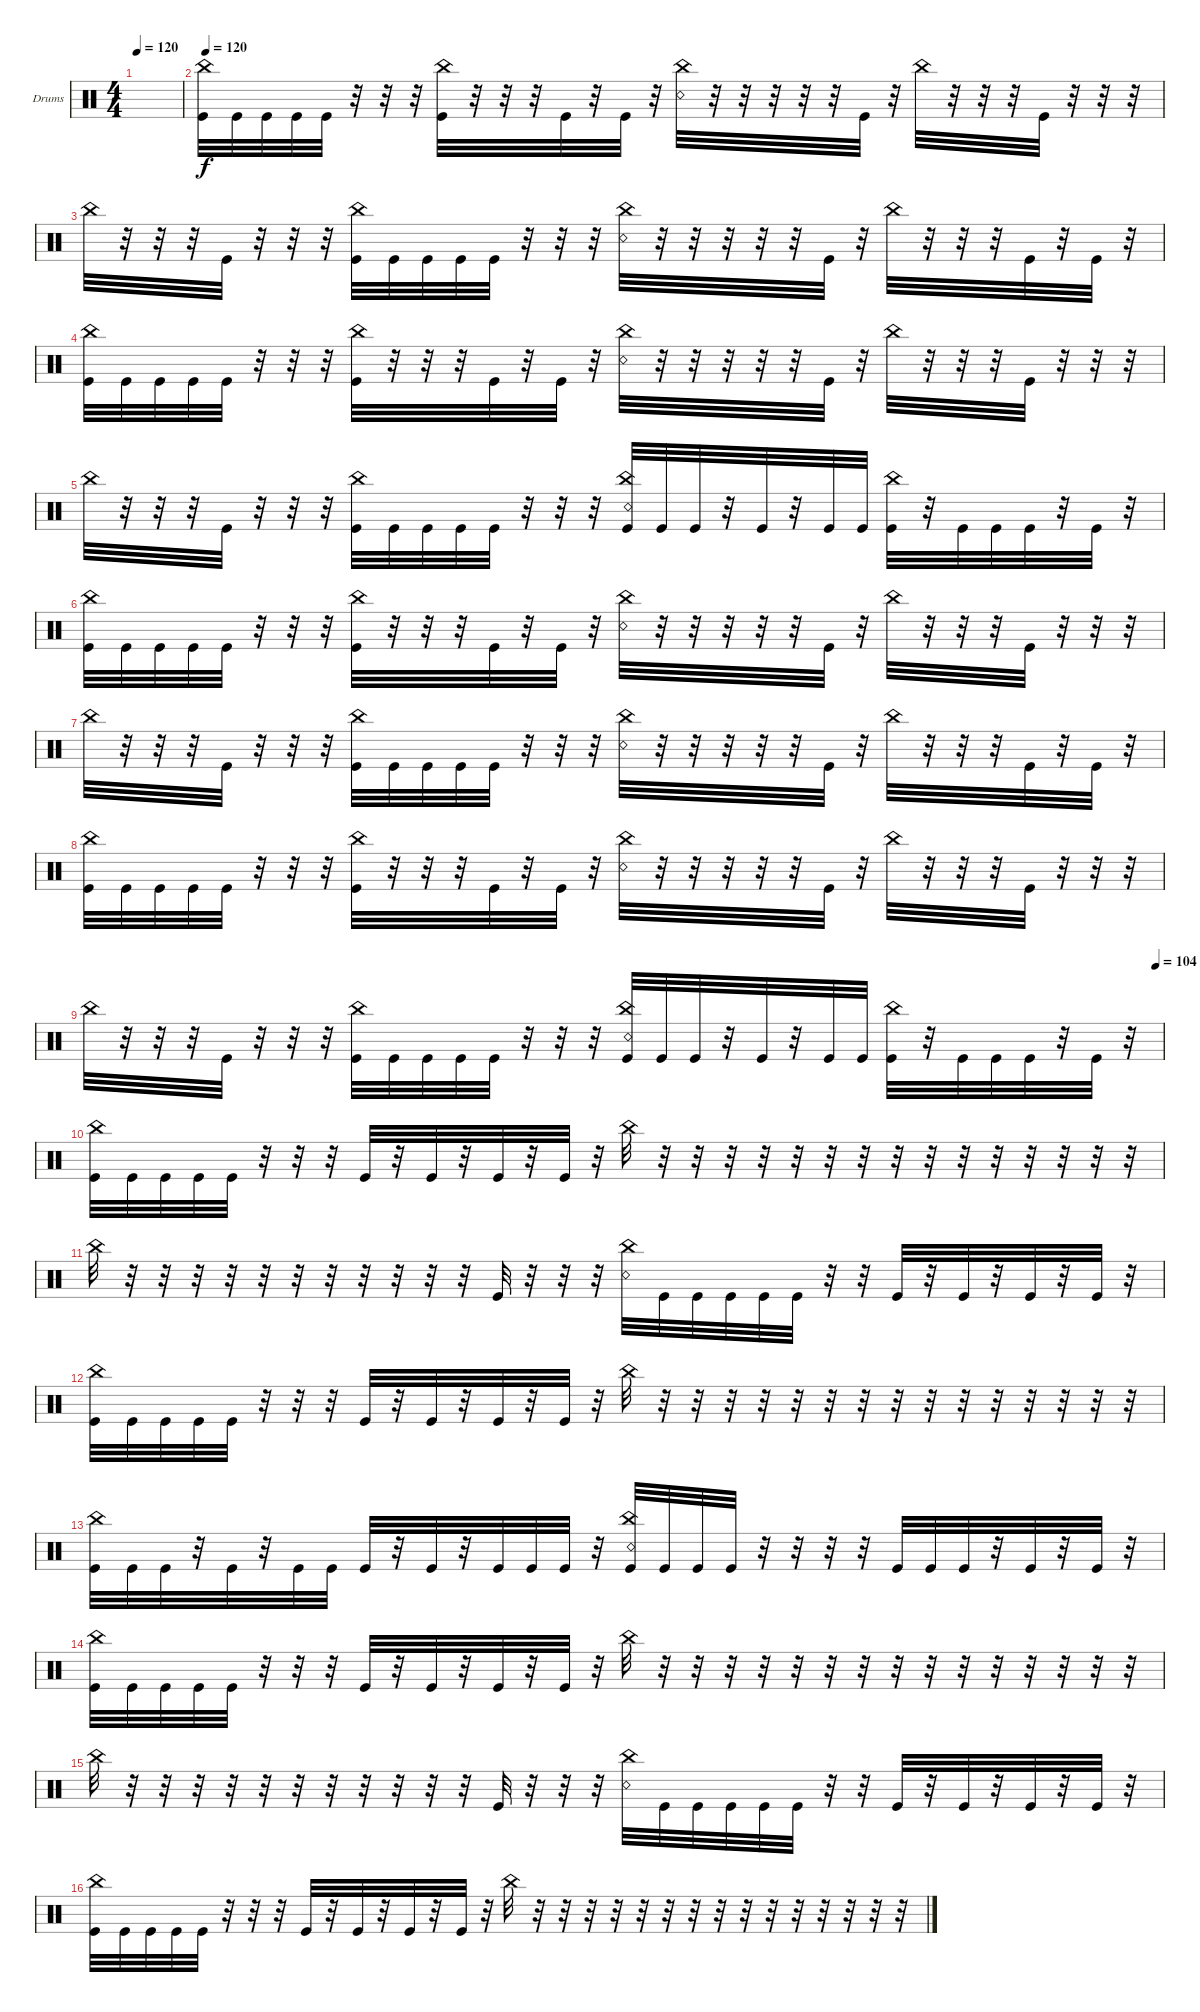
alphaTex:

\defaultSystemsLayout 4
\bracketExtendMode groupsimilarinstruments
\firstSystemTrackNameOrientation horizontal
\otherSystemsTrackNameOrientation horizontal
\track ("Drums" "Drums") {instrument percussion}
\staff {score}
\articulation defaults
\ts (4 4)
\tempo 120
\clef neutral
\ks c
|
\tempo 120
("Kick (hit)" "China (hit)").32 "Kick (hit)".32 "Kick (hit)".32 "Kick (hit)".32 "Kick (hit)".32 r.32 r.32 r.32 ("Kick (hit)" "China (hit)").32 r.32 r.32 r.32 "Kick (hit)".32 r.32 "Kick (hit)".32 r.32 ("Snare (rim shot)" "China (hit)").32 r.32 r.32 r.32 r.32 r.32 "Kick (hit)".32 r.32 "China (hit)".32 r.32 r.32 r.32 "Kick (hit)".32 r.32 r.32 r.32 |
"China (hit)".32 r.32 r.32 r.32 "Kick (hit)".32 r.32 r.32 r.32 ("Kick (hit)" "China (hit)").32 "Kick (hit)".32 "Kick (hit)".32 "Kick (hit)".32 "Kick (hit)".32 r.32 r.32 r.32 ("Snare (rim shot)" "China (hit)").32 r.32 r.32 r.32 r.32 r.32 "Kick (hit)".32 r.32 "China (hit)".32 r.32 r.32 r.32 "Kick (hit)".32 r.32 "Kick (hit)".32 r.32 |
("Kick (hit)" "China (hit)").32 "Kick (hit)".32 "Kick (hit)".32 "Kick (hit)".32 "Kick (hit)".32 r.32 r.32 r.32 ("Kick (hit)" "China (hit)").32 r.32 r.32 r.32 "Kick (hit)".32 r.32 "Kick (hit)".32 r.32 ("Snare (rim shot)" "China (hit)").32 r.32 r.32 r.32 r.32 r.32 "Kick (hit)".32 r.32 "China (hit)".32 r.32 r.32 r.32 "Kick (hit)".32 r.32 r.32 r.32 |
"China (hit)".32 r.32 r.32 r.32 "Kick (hit)".32 r.32 r.32 r.32 ("Kick (hit)" "China (hit)").32 "Kick (hit)".32 "Kick (hit)".32 "Kick (hit)".32 "Kick (hit)".32 r.32 r.32 r.32 ("Snare (rim shot)" "Kick (hit)" "China (hit)").32 "Kick (hit)".32 "Kick (hit)".32 r.32 "Kick (hit)".32 r.32 "Kick (hit)".32 "Kick (hit)".32 ("Kick (hit)" "China (hit)").32 r.32 "Kick (hit)".32 "Kick (hit)".32 "Kick (hit)".32 r.32 "Kick (hit)".32 r.32 |
("Kick (hit)" "China (hit)").32 "Kick (hit)".32 "Kick (hit)".32 "Kick (hit)".32 "Kick (hit)".32 r.32 r.32 r.32 ("Kick (hit)" "China (hit)").32 r.32 r.32 r.32 "Kick (hit)".32 r.32 "Kick (hit)".32 r.32 ("Snare (rim shot)" "China (hit)").32 r.32 r.32 r.32 r.32 r.32 "Kick (hit)".32 r.32 "China (hit)".32 r.32 r.32 r.32 "Kick (hit)".32 r.32 r.32 r.32 |
"China (hit)".32 r.32 r.32 r.32 "Kick (hit)".32 r.32 r.32 r.32 ("Kick (hit)" "China (hit)").32 "Kick (hit)".32 "Kick (hit)".32 "Kick (hit)".32 "Kick (hit)".32 r.32 r.32 r.32 ("Snare (rim shot)" "China (hit)").32 r.32 r.32 r.32 r.32 r.32 "Kick (hit)".32 r.32 "China (hit)".32 r.32 r.32 r.32 "Kick (hit)".32 r.32 "Kick (hit)".32 r.32 |
("Kick (hit)" "China (hit)").32 "Kick (hit)".32 "Kick (hit)".32 "Kick (hit)".32 "Kick (hit)".32 r.32 r.32 r.32 ("Kick (hit)" "China (hit)").32 r.32 r.32 r.32 "Kick (hit)".32 r.32 "Kick (hit)".32 r.32 ("Snare (rim shot)" "China (hit)").32 r.32 r.32 r.32 r.32 r.32 "Kick (hit)".32 r.32 "China (hit)".32 r.32 r.32 r.32 "Kick (hit)".32 r.32 r.32 r.32 |
\tempo (104 0.99375)
"China (hit)".32 r.32 r.32 r.32 "Kick (hit)".32 r.32 r.32 r.32 ("Kick (hit)" "China (hit)").32 "Kick (hit)".32 "Kick (hit)".32 "Kick (hit)".32 "Kick (hit)".32 r.32 r.32 r.32 ("Snare (rim shot)" "Kick (hit)" "China (hit)").32 "Kick (hit)".32 "Kick (hit)".32 r.32 "Kick (hit)".32 r.32 "Kick (hit)".32 "Kick (hit)".32 ("Kick (hit)" "China (hit)").32 r.32 "Kick (hit)".32 "Kick (hit)".32 "Kick (hit)".32 r.32 "Kick (hit)".32 r.32 |
("Kick (hit)" "China (hit)").32 "Kick (hit)".32 "Kick (hit)".32 "Kick (hit)".32 "Kick (hit)".32 r.32 r.32 r.32 "Kick (hit)".32 r.32 "Kick (hit)".32 r.32 "Kick (hit)".32 r.32 "Kick (hit)".32 r.32 "China (hit)".32 r.32 r.32 r.32 r.32 r.32 r.32 r.32 r.32 r.32 r.32 r.32 r.32 r.32 r.32 r.32 |
"China (hit)".32 r.32 r.32 r.32 r.32 r.32 r.32 r.32 r.32 r.32 r.32 r.32 "Kick (hit)".32 r.32 r.32 r.32 ("China (hit)" "Snare (rim shot)").32 "Kick (hit)".32 "Kick (hit)".32 "Kick (hit)".32 "Kick (hit)".32 "Kick (hit)".32 r.32 r.32 "Kick (hit)".32 r.32 "Kick (hit)".32 r.32 "Kick (hit)".32 r.32 "Kick (hit)".32 r.32 |
("Kick (hit)" "China (hit)").32 "Kick (hit)".32 "Kick (hit)".32 "Kick (hit)".32 "Kick (hit)".32 r.32 r.32 r.32 "Kick (hit)".32 r.32 "Kick (hit)".32 r.32 "Kick (hit)".32 r.32 "Kick (hit)".32 r.32 "China (hit)".32 r.32 r.32 r.32 r.32 r.32 r.32 r.32 r.32 r.32 r.32 r.32 r.32 r.32 r.32 r.32 |
("China (hit)" "Kick (hit)").32 "Kick (hit)".32 "Kick (hit)".32 r.32 "Kick (hit)".32 r.32 "Kick (hit)".32 "Kick (hit)".32 "Kick (hit)".32 r.32 "Kick (hit)".32 r.32 "Kick (hit)".32 "Kick (hit)".32 "Kick (hit)".32 r.32 ("China (hit)" "Snare (rim shot)" "Kick (hit)").32 "Kick (hit)".32 "Kick (hit)".32 "Kick (hit)".32 r.32 r.32 r.32 r.32 "Kick (hit)".32 "Kick (hit)".32 "Kick (hit)".32 r.32 "Kick (hit)".32 r.32 "Kick (hit)".32 r.32 |
("Kick (hit)" "China (hit)").32 "Kick (hit)".32 "Kick (hit)".32 "Kick (hit)".32 "Kick (hit)".32 r.32 r.32 r.32 "Kick (hit)".32 r.32 "Kick (hit)".32 r.32 "Kick (hit)".32 r.32 "Kick (hit)".32 r.32 "China (hit)".32 r.32 r.32 r.32 r.32 r.32 r.32 r.32 r.32 r.32 r.32 r.32 r.32 r.32 r.32 r.32 |
"China (hit)".32 r.32 r.32 r.32 r.32 r.32 r.32 r.32 r.32 r.32 r.32 r.32 "Kick (hit)".32 r.32 r.32 r.32 ("China (hit)" "Snare (rim shot)").32 "Kick (hit)".32 "Kick (hit)".32 "Kick (hit)".32 "Kick (hit)".32 "Kick (hit)".32 r.32 r.32 "Kick (hit)".32 r.32 "Kick (hit)".32 r.32 "Kick (hit)".32 r.32 "Kick (hit)".32 r.32 |
("Kick (hit)" "China (hit)").32 "Kick (hit)".32 "Kick (hit)".32 "Kick (hit)".32 "Kick (hit)".32 r.32 r.32 r.32 "Kick (hit)".32 r.32 "Kick (hit)".32 r.32 "Kick (hit)".32 r.32 "Kick (hit)".32 r.32 "China (hit)".32 r.32 r.32 r.32 r.32 r.32 r.32 r.32 r.32 r.32 r.32 r.32 r.32 r.32 r.32 r.32
